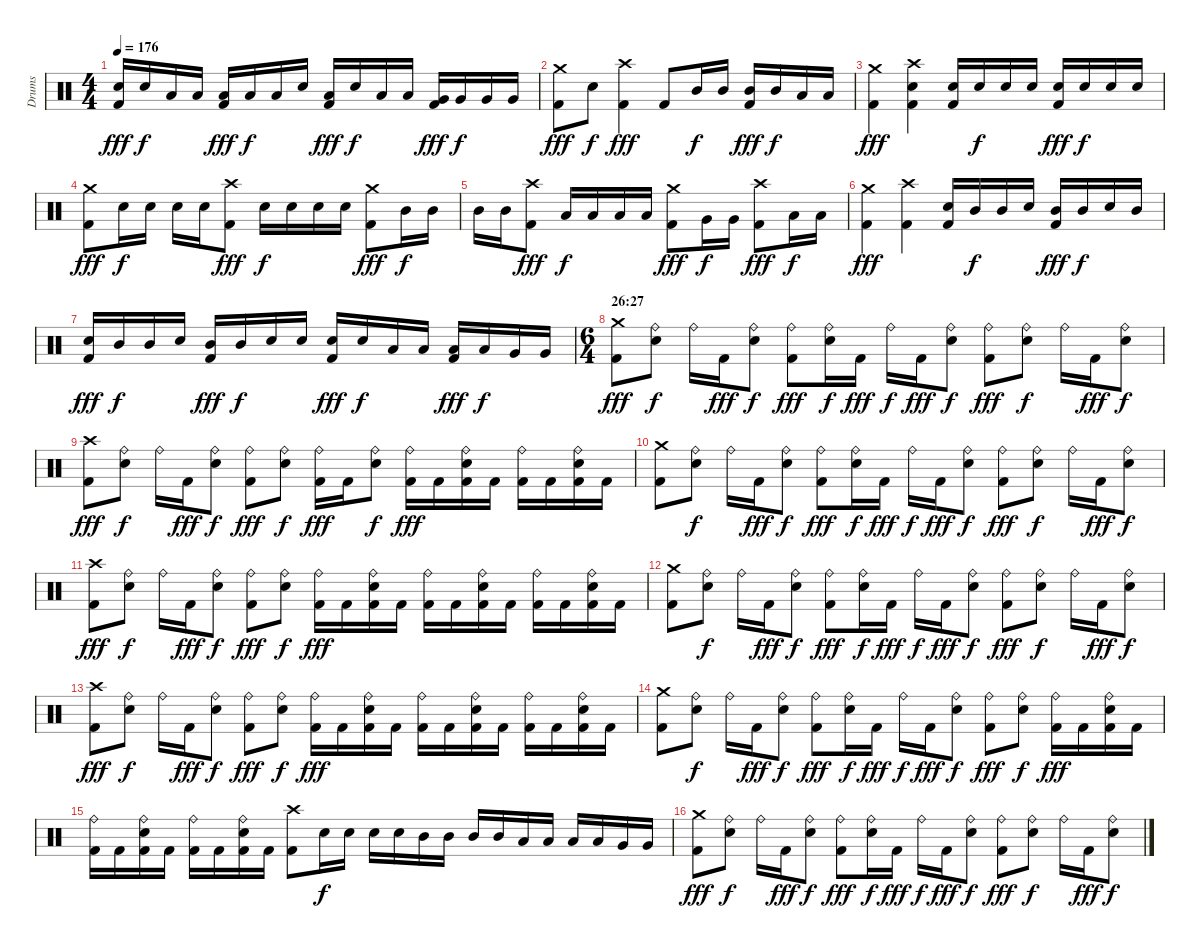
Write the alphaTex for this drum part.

\track ("Drums" "Drums") {instrument percussion}
\staff {score}
\articulation defaults
\ts (4 4)
\tempo 176
\clef neutral
\ks c
("Snare (hit) 2" "Kick (hit) 2").16{dy fff} "Snare (hit) 2".16{dy f} "Low Tom (hit)".16 "Low Tom (hit)".16 ("Low Tom (hit)" "Kick (hit) 2").16{dy fff} "Low Tom (hit)".16{dy f} "Low Tom (hit)".16 "Snare (hit) 2".16 ("Low Tom (hit)" "Kick (hit) 2").16{dy fff} "Snare (hit) 2".16{dy f} "Low Tom (hit)".16 "Low Tom (hit)".16 ("Very Low Tom (hit)" "Kick (hit) 2").16{dy fff} "Very Low Tom (hit)".16{dy f} "Very Low Tom (hit)".16 "Very Low Tom (hit)".16 |
("Crash medium (hit)" "Kick (hit) 2").8{dy fff} "Snare (hit) 2".8{dy f} ("Crash high (hit)" "Kick (hit) 2").4{dy fff} "Kick (hit) 2".8 "Mid Tom (hit)".16{dy f} "Mid Tom (hit)".16 ("Mid Tom (hit)" "Kick (hit) 2").16{dy fff} "Mid Tom (hit)".16{dy f} "Low Tom (hit)".16 "Low Tom (hit)".16 |
("Crash medium (hit)" "Kick (hit) 2").4{dy fff} ("Crash high (hit)" "Snare (hit) 2" "Kick (hit) 2").4 ("Snare (hit) 2" "Kick (hit) 2").16 "Snare (hit) 2".16{dy f} "Snare (hit) 2".16 "Snare (hit) 2".16 ("Snare (hit) 2" "Kick (hit) 2").16{dy fff} "Snare (hit) 2".16{dy f} "Snare (hit) 2".16 "Snare (hit) 2".16 |
("Crash medium (hit)" "Kick (hit) 2").8{dy fff} "Snare (hit) 2".16{dy f} "Snare (hit) 2".16 "Snare (hit) 2".16 "Snare (hit) 2".16 ("Crash high (hit)" "Kick (hit) 2").8{dy fff} "Snare (hit) 2".16{dy f} "Snare (hit) 2".16 "Snare (hit) 2".16 "Snare (hit) 2".16 ("Crash medium (hit)" "Kick (hit) 2").8{dy fff} "Mid Tom (hit)".16{dy f} "Mid Tom (hit)".16 |
"Mid Tom (hit)".16 "Mid Tom (hit)".16 ("Crash high (hit)" "Kick (hit) 2").8{dy fff} "Low Tom (hit)".16{dy f} "Low Tom (hit)".16 "Low Tom (hit)".16 "Low Tom (hit)".16 ("Crash medium (hit)" "Kick (hit) 2").8{dy fff} "Very Low Tom (hit)".16{dy f} "Very Low Tom (hit)".16 ("Crash high (hit)" "Kick (hit) 2").8{dy fff} "Low Floor Tom (hit)".16{dy f} "Low Floor Tom (hit)".16 |
("Crash medium (hit)" "Kick (hit) 2").4{dy fff} ("Crash high (hit)" "Kick (hit) 2").4 ("Snare (hit) 2" "Kick (hit) 2").16 "Mid Tom (hit)".16{dy f} "Mid Tom (hit)".16 "Snare (hit) 2".16 ("Mid Tom (hit)" "Kick (hit) 2").16{dy fff} "Mid Tom (hit)".16{dy f} "Snare (hit) 2".16 "Mid Tom (hit)".16 |
("Snare (hit) 2" "Kick (hit) 2").16{dy fff} "Mid Tom (hit)".16{dy f} "Mid Tom (hit)".16 "Snare (hit) 2".16 ("Mid Tom (hit)" "Kick (hit) 2").16{dy fff} "Mid Tom (hit)".16{dy f} "Snare (hit) 2".16 "Snare (hit) 2".16 ("Snare (hit) 2" "Kick (hit) 2").16{dy fff} "Snare (hit) 2".16{dy f} "Low Tom (hit)".16 "Low Tom (hit)".16 ("Low Tom (hit)" "Kick (hit) 2").16{dy fff} "Low Tom (hit)".16{dy f} "Very Low Tom (hit)".16 "Very Low Tom (hit)".16 |
\ts (6 4)
\section ("" "26:27")
("Crash medium (hit)" "Kick (hit) 2").8{dy fff} ("Ride (bell)" "Snare (hit) 2").8{dy f} "Ride (bell)".16 "Kick (hit) 2".16{dy fff} ("Ride (bell)" "Snare (hit) 2").8{dy f} ("Ride (bell)" "Kick (hit) 2").8{dy fff} ("Ride (bell)" "Snare (hit) 2").16{dy f} "Kick (hit) 2".16{dy fff} "Ride (bell)".16{dy f} "Kick (hit) 2".16{dy fff} ("Ride (bell)" "Snare (hit) 2").8{dy f} ("Ride (bell)" "Kick (hit) 2").8{dy fff} ("Ride (bell)" "Snare (hit) 2").8{dy f} "Ride (bell)".16 "Kick (hit) 2".16{dy fff} ("Ride (bell)" "Snare (hit) 2").8{dy f} |
("Crash high (hit)" "Kick (hit) 2").8{dy fff} ("Ride (bell)" "Snare (hit) 2").8{dy f} "Ride (bell)".16 "Kick (hit) 2".16{dy fff} ("Ride (bell)" "Snare (hit) 2").8{dy f} ("Ride (bell)" "Kick (hit) 2").8{dy fff} ("Ride (bell)" "Snare (hit) 2").8{dy f} ("Ride (bell)" "Kick (hit) 2").16{dy fff} "Kick (hit) 2".16 ("Ride (bell)" "Snare (hit) 2").8{dy f} ("Ride (bell)" "Kick (hit) 2").16{dy fff} "Kick (hit) 2".16 ("Ride (bell)" "Snare (hit) 2" "Kick (hit) 2").16 "Kick (hit) 2".16 ("Ride (bell)" "Kick (hit) 2").16 "Kick (hit) 2".16 ("Ride (bell)" "Snare (hit) 2" "Kick (hit) 2").16 "Kick (hit) 2".16 |
("Crash medium (hit)" "Kick (hit) 2").8 ("Ride (bell)" "Snare (hit) 2").8{dy f} "Ride (bell)".16 "Kick (hit) 2".16{dy fff} ("Ride (bell)" "Snare (hit) 2").8{dy f} ("Ride (bell)" "Kick (hit) 2").8{dy fff} ("Ride (bell)" "Snare (hit) 2").16{dy f} "Kick (hit) 2".16{dy fff} "Ride (bell)".16{dy f} "Kick (hit) 2".16{dy fff} ("Ride (bell)" "Snare (hit) 2").8{dy f} ("Ride (bell)" "Kick (hit) 2").8{dy fff} ("Ride (bell)" "Snare (hit) 2").8{dy f} "Ride (bell)".16 "Kick (hit) 2".16{dy fff} ("Ride (bell)" "Snare (hit) 2").8{dy f} |
("Crash high (hit)" "Kick (hit) 2").8{dy fff} ("Ride (bell)" "Snare (hit) 2").8{dy f} "Ride (bell)".16 "Kick (hit) 2".16{dy fff} ("Ride (bell)" "Snare (hit) 2").8{dy f} ("Ride (bell)" "Kick (hit) 2").8{dy fff} ("Ride (bell)" "Snare (hit) 2").8{dy f} ("Ride (bell)" "Kick (hit) 2").16{dy fff} "Kick (hit) 2".16 ("Ride (bell)" "Snare (hit) 2" "Kick (hit) 2").16 "Kick (hit) 2".16 ("Ride (bell)" "Kick (hit) 2").16 "Kick (hit) 2".16 ("Ride (bell)" "Snare (hit) 2" "Kick (hit) 2").16 "Kick (hit) 2".16 ("Ride (bell)" "Kick (hit) 2").16 "Kick (hit) 2".16 ("Ride (bell)" "Snare (hit) 2" "Kick (hit) 2").16 "Kick (hit) 2".16 |
("Crash medium (hit)" "Kick (hit) 2").8 ("Ride (bell)" "Snare (hit) 2").8{dy f} "Ride (bell)".16 "Kick (hit) 2".16{dy fff} ("Ride (bell)" "Snare (hit) 2").8{dy f} ("Ride (bell)" "Kick (hit) 2").8{dy fff} ("Ride (bell)" "Snare (hit) 2").16{dy f} "Kick (hit) 2".16{dy fff} "Ride (bell)".16{dy f} "Kick (hit) 2".16{dy fff} ("Ride (bell)" "Snare (hit) 2").8{dy f} ("Ride (bell)" "Kick (hit) 2").8{dy fff} ("Ride (bell)" "Snare (hit) 2").8{dy f} "Ride (bell)".16 "Kick (hit) 2".16{dy fff} ("Ride (bell)" "Snare (hit) 2").8{dy f} |
("Crash high (hit)" "Kick (hit) 2").8{dy fff} ("Ride (bell)" "Snare (hit) 2").8{dy f} "Ride (bell)".16 "Kick (hit) 2".16{dy fff} ("Ride (bell)" "Snare (hit) 2").8{dy f} ("Ride (bell)" "Kick (hit) 2").8{dy fff} ("Ride (bell)" "Snare (hit) 2").8{dy f} ("Ride (bell)" "Kick (hit) 2").16{dy fff} "Kick (hit) 2".16 ("Ride (bell)" "Snare (hit) 2" "Kick (hit) 2").16 "Kick (hit) 2".16 ("Ride (bell)" "Kick (hit) 2").16 "Kick (hit) 2".16 ("Ride (bell)" "Snare (hit) 2" "Kick (hit) 2").16 "Kick (hit) 2".16 ("Ride (bell)" "Kick (hit) 2").16 "Kick (hit) 2".16 ("Ride (bell)" "Snare (hit) 2" "Kick (hit) 2").16 "Kick (hit) 2".16 |
("Crash medium (hit)" "Kick (hit) 2").8 ("Ride (bell)" "Snare (hit) 2").8{dy f} "Ride (bell)".16 "Kick (hit) 2".16{dy fff} ("Ride (bell)" "Snare (hit) 2").8{dy f} ("Ride (bell)" "Kick (hit) 2").8{dy fff} ("Ride (bell)" "Snare (hit) 2").16{dy f} "Kick (hit) 2".16{dy fff} "Ride (bell)".16{dy f} "Kick (hit) 2".16{dy fff} ("Ride (bell)" "Snare (hit) 2").8{dy f} ("Ride (bell)" "Kick (hit) 2").8{dy fff} ("Ride (bell)" "Snare (hit) 2").8{dy f} ("Ride (bell)" "Kick (hit) 2").16{dy fff} "Kick (hit) 2".16 ("Ride (bell)" "Snare (hit) 2" "Kick (hit) 2").16 "Kick (hit) 2".16 |
("Ride (bell)" "Kick (hit) 2").16 "Kick (hit) 2".16 ("Ride (bell)" "Snare (hit) 2" "Kick (hit) 2").16 "Kick (hit) 2".16 ("Ride (bell)" "Kick (hit) 2").16 "Kick (hit) 2".16 ("Ride (bell)" "Snare (hit) 2" "Kick (hit) 2").16 "Kick (hit) 2".16 ("Crash high (hit)" "Kick (hit) 2").8 "Snare (hit) 2".16{dy f} "Snare (hit) 2".16 "Snare (hit) 2".16 "Snare (hit) 2".16 "Mid Tom (hit)".16 "Mid Tom (hit)".16 "Mid Tom (hit)".16 "Mid Tom (hit)".16 "Low Tom (hit)".16 "Low Tom (hit)".16 "Low Tom (hit)".16 "Low Tom (hit)".16 "Very Low Tom (hit)".16 "Very Low Tom (hit)".16 |
("Crash medium (hit)" "Kick (hit) 2").8{dy fff} ("Ride (bell)" "Snare (hit) 2").8{dy f} "Ride (bell)".16 "Kick (hit) 2".16{dy fff} ("Ride (bell)" "Snare (hit) 2").8{dy f} ("Ride (bell)" "Kick (hit) 2").8{dy fff} ("Ride (bell)" "Snare (hit) 2").16{dy f} "Kick (hit) 2".16{dy fff} "Ride (bell)".16{dy f} "Kick (hit) 2".16{dy fff} ("Ride (bell)" "Snare (hit) 2").8{dy f} ("Ride (bell)" "Kick (hit) 2").8{dy fff} ("Ride (bell)" "Snare (hit) 2").8{dy f} "Ride (bell)".16 "Kick (hit) 2".16{dy fff} ("Ride (bell)" "Snare (hit) 2").8{dy f}
